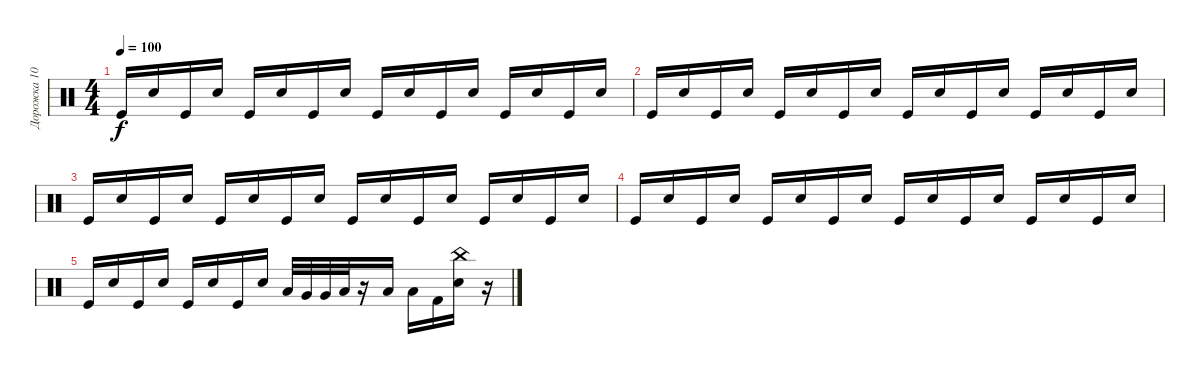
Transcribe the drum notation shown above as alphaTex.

\track ("Дорожка 10" "Дорожка 10") {instrument percussion}
\staff {score}
\articulation defaults
\ts (4 4)
\tempo 100
\clef neutral
\ks c "Kick (hit)".16{dy f} "Snare (hit) 2".16 "Kick (hit)".16 "Electric Snare (hit)".16 "Kick (hit)".16 "Snare (hit) 2".16 "Kick (hit)".16 "Electric Snare (hit)".16 "Kick (hit)".16 "Snare (hit) 2".16 "Kick (hit)".16 "Electric Snare (hit)".16 "Kick (hit)".16 "Snare (hit) 2".16 "Kick (hit)".16 "Electric Snare (hit)".16
|
"Kick (hit)".16 "Snare (hit) 2".16 "Kick (hit)".16 "Electric Snare (hit)".16 "Kick (hit)".16 "Snare (hit) 2".16 "Kick (hit)".16 "Electric Snare (hit)".16 "Kick (hit)".16 "Snare (hit) 2".16 "Kick (hit)".16 "Electric Snare (hit)".16 "Kick (hit)".16 "Snare (hit) 2".16 "Kick (hit)".16 "Electric Snare (hit)".16 |
"Kick (hit)".16 "Snare (hit) 2".16 "Kick (hit)".16 "Electric Snare (hit)".16 "Kick (hit)".16 "Snare (hit) 2".16 "Kick (hit)".16 "Electric Snare (hit)".16 "Kick (hit)".16 "Snare (hit) 2".16 "Kick (hit)".16 "Electric Snare (hit)".16 "Kick (hit)".16 "Snare (hit) 2".16 "Kick (hit)".16 "Electric Snare (hit)".16 |
"Kick (hit)".16 "Snare (hit) 2".16 "Kick (hit)".16 "Electric Snare (hit)".16 "Kick (hit)".16 "Snare (hit) 2".16 "Kick (hit)".16 "Electric Snare (hit)".16 "Kick (hit)".16 "Snare (hit) 2".16 "Kick (hit)".16 "Electric Snare (hit)".16 "Kick (hit)".16 "Snare (hit) 2".16 "Kick (hit)".16 "Electric Snare (hit)".16 |
"Kick (hit)".16 "Snare (hit) 2".16 "Kick (hit)".16 "Electric Snare (hit)".16 "Kick (hit)".16 "Snare (hit) 2".16 "Kick (hit)".16 "Electric Snare (hit)".16 "Low Tom (hit)".32 "Very Low Tom (hit)".32 "Very Low Tom (hit)".32 "Low Tom (hit)".32 r.16 "Low Floor Tom (hit)".16 "Low Floor Tom (hit)".16 "Kick (hit) 2".16 ("Electric Snare (hit)" "China (hit)").16 r.16
